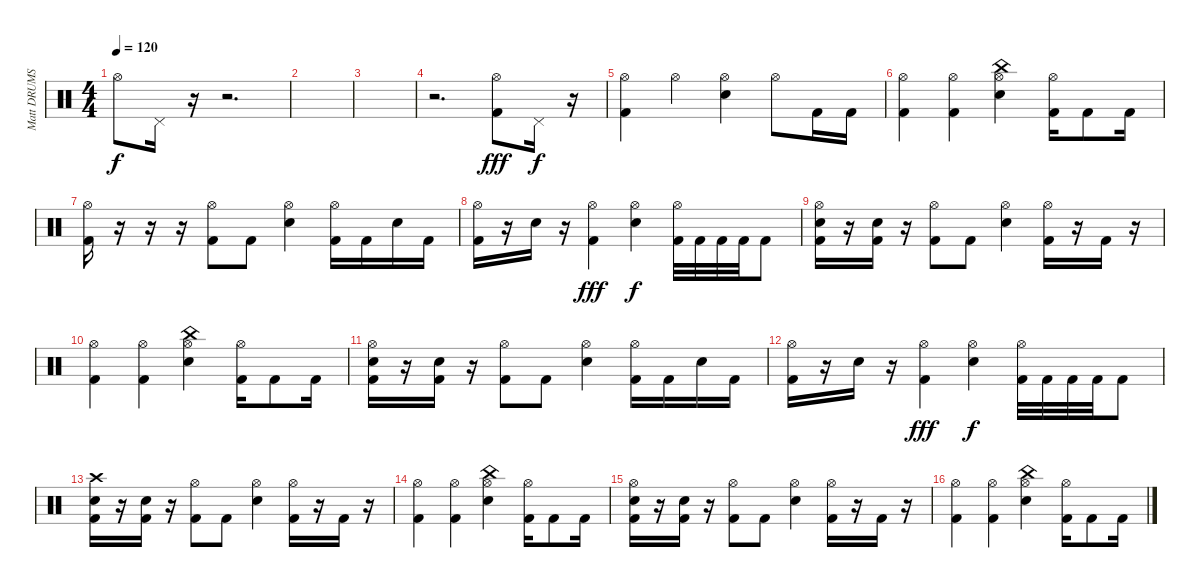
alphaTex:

\track ("Matt DRUMS" "Matt DRUMS") {instrument percussion}
\staff {score}
\articulation defaults
\ts (4 4)
\tempo 120
\clef neutral
\ks c "Hi-Hat (open)".8{dy f} "Pedal Hi-Hat (hit)".16
r.16 r.2{d} |
|
|
r.2{d} ("Hi-Hat (open)" "Kick (hit) 2").8{dy fff} "Pedal Hi-Hat (hit)".16{dy f} r.16 |
("Hi-Hat (open)" "Kick (hit) 2").4 "Hi-Hat (open)".4 ("Hi-Hat (open)" "Snare (hit) 2").4 "Hi-Hat (open)".8 "Kick (hit) 2".16 "Kick (hit) 2".16 |
("Hi-Hat (open)" "Kick (hit) 2").4 ("Hi-Hat (open)" "Kick (hit) 2").4 ("China (hit)" "Hi-Hat (open)" "Snare (hit) 2").4 ("Hi-Hat (open)" "Kick (hit) 2").16 "Kick (hit) 2".8 "Kick (hit) 2".16 |
("Hi-Hat (open)" "Kick (hit) 2").16 r.16 r.16 r.16 ("Hi-Hat (open)" "Kick (hit) 2").8 "Kick (hit) 2".8 ("Hi-Hat (open)" "Snare (hit) 2").4 ("Hi-Hat (open)" "Kick (hit) 2").16 "Kick (hit) 2".16 "Snare (hit) 2".16 "Kick (hit) 2".16 |
("Hi-Hat (open)" "Kick (hit) 2").16 r.16 "Snare (hit) 2".16 r.16 ("Hi-Hat (open)" "Kick (hit) 2").4{dy fff} ("Hi-Hat (open)" "Snare (hit) 2").4{dy f} ("Hi-Hat (open)" "Kick (hit) 2").32 "Kick (hit) 2".32 "Kick (hit) 2".32 "Kick (hit) 2".32 "Kick (hit) 2".8 |
("Hi-Hat (open)" "Snare (hit) 2" "Kick (hit) 2").16 r.16 ("Snare (hit) 2" "Kick (hit) 2").16 r.16 ("Hi-Hat (open)" "Kick (hit) 2").8 "Kick (hit) 2".8 ("Hi-Hat (open)" "Snare (hit) 2").4 ("Hi-Hat (open)" "Kick (hit) 2").16 r.16 "Kick (hit) 2".16 r.16 |
("Hi-Hat (open)" "Kick (hit) 2").4 ("Hi-Hat (open)" "Kick (hit) 2").4 ("China (hit)" "Hi-Hat (open)" "Snare (hit) 2").4 ("Hi-Hat (open)" "Kick (hit) 2").16 "Kick (hit) 2".8 "Kick (hit) 2".16 |
("Hi-Hat (open)" "Snare (hit) 2" "Kick (hit) 2").16 r.16 ("Snare (hit) 2" "Kick (hit) 2").16 r.16 ("Hi-Hat (open)" "Kick (hit) 2").8 "Kick (hit) 2".8 ("Hi-Hat (open)" "Snare (hit) 2").4 ("Hi-Hat (open)" "Kick (hit) 2").16 "Kick (hit) 2".16 "Snare (hit) 2".16 "Kick (hit) 2".16 |
("Hi-Hat (open)" "Kick (hit) 2").16 r.16 "Snare (hit) 2".16 r.16 ("Hi-Hat (open)" "Kick (hit) 2").4{dy fff} ("Hi-Hat (open)" "Snare (hit) 2").4{dy f} ("Hi-Hat (open)" "Kick (hit) 2").32 "Kick (hit) 2".32 "Kick (hit) 2".32 "Kick (hit) 2".32 "Kick (hit) 2".8 |
("Crash high (hit)" "Snare (hit) 2" "Kick (hit) 2").16 r.16 ("Snare (hit) 2" "Kick (hit) 2").16 r.16 ("Hi-Hat (open)" "Kick (hit) 2").8 "Kick (hit) 2".8 ("Hi-Hat (open)" "Snare (hit) 2").4 ("Hi-Hat (open)" "Kick (hit) 2").16 r.16 "Kick (hit) 2".16 r.16 |
("Hi-Hat (open)" "Kick (hit) 2").4 ("Hi-Hat (open)" "Kick (hit) 2").4 ("China (hit)" "Hi-Hat (open)" "Snare (hit) 2").4 ("Hi-Hat (open)" "Kick (hit) 2").16 "Kick (hit) 2".8 "Kick (hit) 2".16 |
("Hi-Hat (open)" "Snare (hit) 2" "Kick (hit) 2").16 r.16 ("Snare (hit) 2" "Kick (hit) 2").16 r.16 ("Hi-Hat (open)" "Kick (hit) 2").8 "Kick (hit) 2".8 ("Hi-Hat (open)" "Snare (hit) 2").4 ("Hi-Hat (open)" "Kick (hit) 2").16 r.16 "Kick (hit) 2".16 r.16 |
("Hi-Hat (open)" "Kick (hit) 2").4 ("Hi-Hat (open)" "Kick (hit) 2").4 ("China (hit)" "Hi-Hat (open)" "Snare (hit) 2").4 ("Hi-Hat (open)" "Kick (hit) 2").16 "Kick (hit) 2".8 "Kick (hit) 2".16
